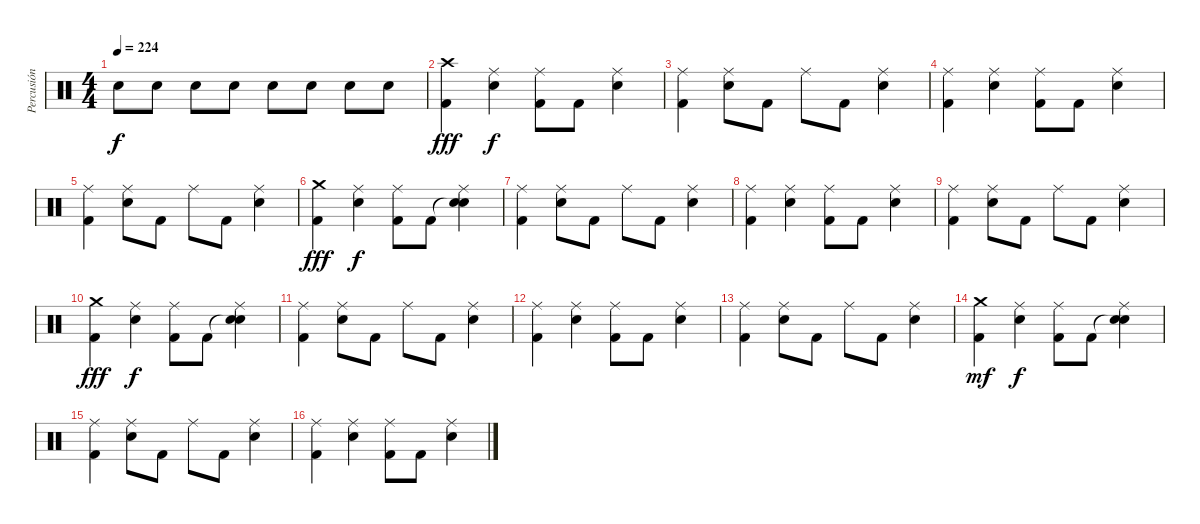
\track ("Percusión" "Percusión") {instrument percussion}
\staff {score}
\articulation defaults
\ts (4 4)
\tempo 224
\clef neutral
\ks c "Electric Snare (hit)".8{dy f} "Electric Snare (hit)".8 "Electric Snare (hit)".8 "Electric Snare (hit)".8 "Electric Snare (hit)".8 "Electric Snare (hit)".8 "Electric Snare (hit)".8 "Electric Snare (hit)".8
|
("Crash high (hit)" "Kick (hit) 2").4{dy fff} ("Ride (middle)" "Electric Snare (hit)").4{dy f} ("Ride (middle)" "Kick (hit) 2").8 "Kick (hit) 2".8 ("Ride (middle)" "Electric Snare (hit)").4 |
("Ride (middle)" "Kick (hit) 2").4 ("Ride (middle)" "Electric Snare (hit)").8 "Kick (hit) 2".8 "Ride (middle)".8 "Kick (hit) 2".8 ("Ride (middle)" "Electric Snare (hit)").4 |
("Ride (middle)" "Kick (hit) 2").4 ("Ride (middle)" "Electric Snare (hit)").4 ("Ride (middle)" "Kick (hit) 2").8 "Kick (hit) 2".8 ("Ride (middle)" "Electric Snare (hit)").4 |
("Ride (middle)" "Kick (hit) 2").4 ("Ride (middle)" "Electric Snare (hit)").8 "Kick (hit) 2".8 "Ride (middle)".8 "Kick (hit) 2".8 ("Ride (middle)" "Electric Snare (hit)").4 |
("Crash medium (hit)" "Kick (hit) 2").4{dy fff} ("Ride (middle)" "Electric Snare (hit)").4{dy f} ("Ride (middle)" "Kick (hit) 2").8 "Kick (hit) 2".8 ("Snare (hit)"{t} "Ride (middle)" "Electric Snare (hit)").4 |
("Ride (middle)" "Kick (hit) 2").4 ("Ride (middle)" "Electric Snare (hit)").8 "Kick (hit) 2".8 "Ride (middle)".8 "Kick (hit) 2".8 ("Ride (middle)" "Electric Snare (hit)").4 |
("Ride (middle)" "Kick (hit) 2").4 ("Ride (middle)" "Electric Snare (hit)").4 ("Ride (middle)" "Kick (hit) 2").8 "Kick (hit) 2".8 ("Ride (middle)" "Electric Snare (hit)").4 |
("Ride (middle)" "Kick (hit) 2").4 ("Ride (middle)" "Electric Snare (hit)").8 "Kick (hit) 2".8 "Ride (middle)".8 "Kick (hit) 2".8 ("Ride (middle)" "Electric Snare (hit)").4 |
("Crash medium (hit)" "Kick (hit) 2").4{dy fff} ("Ride (middle)" "Electric Snare (hit)").4{dy f} ("Ride (middle)" "Kick (hit) 2").8 "Kick (hit) 2".8 ("Snare (hit)"{t} "Ride (middle)" "Electric Snare (hit)").4 |
("Ride (middle)" "Kick (hit) 2").4 ("Ride (middle)" "Electric Snare (hit)").8 "Kick (hit) 2".8 "Ride (middle)".8 "Kick (hit) 2".8 ("Ride (middle)" "Electric Snare (hit)").4 |
("Ride (middle)" "Kick (hit) 2").4 ("Ride (middle)" "Electric Snare (hit)").4 ("Ride (middle)" "Kick (hit) 2").8 "Kick (hit) 2".8 ("Ride (middle)" "Electric Snare (hit)").4 |
("Ride (middle)" "Kick (hit) 2").4 ("Ride (middle)" "Electric Snare (hit)").8 "Kick (hit) 2".8 "Ride (middle)".8 "Kick (hit) 2".8 ("Ride (middle)" "Electric Snare (hit)").4 |
("Crash medium (hit)" "Kick (hit) 2").4{dy mf} ("Ride (middle)" "Electric Snare (hit)").4{dy f} ("Ride (middle)" "Kick (hit) 2").8 "Kick (hit) 2".8 ("Snare (hit)"{t} "Ride (middle)" "Electric Snare (hit)").4 |
("Ride (middle)" "Kick (hit) 2").4 ("Ride (middle)" "Electric Snare (hit)").8 "Kick (hit) 2".8 "Ride (middle)".8 "Kick (hit) 2".8 ("Ride (middle)" "Electric Snare (hit)").4 |
("Ride (middle)" "Kick (hit) 2").4 ("Ride (middle)" "Electric Snare (hit)").4 ("Ride (middle)" "Kick (hit) 2").8 "Kick (hit) 2".8 ("Ride (middle)" "Electric Snare (hit)").4
